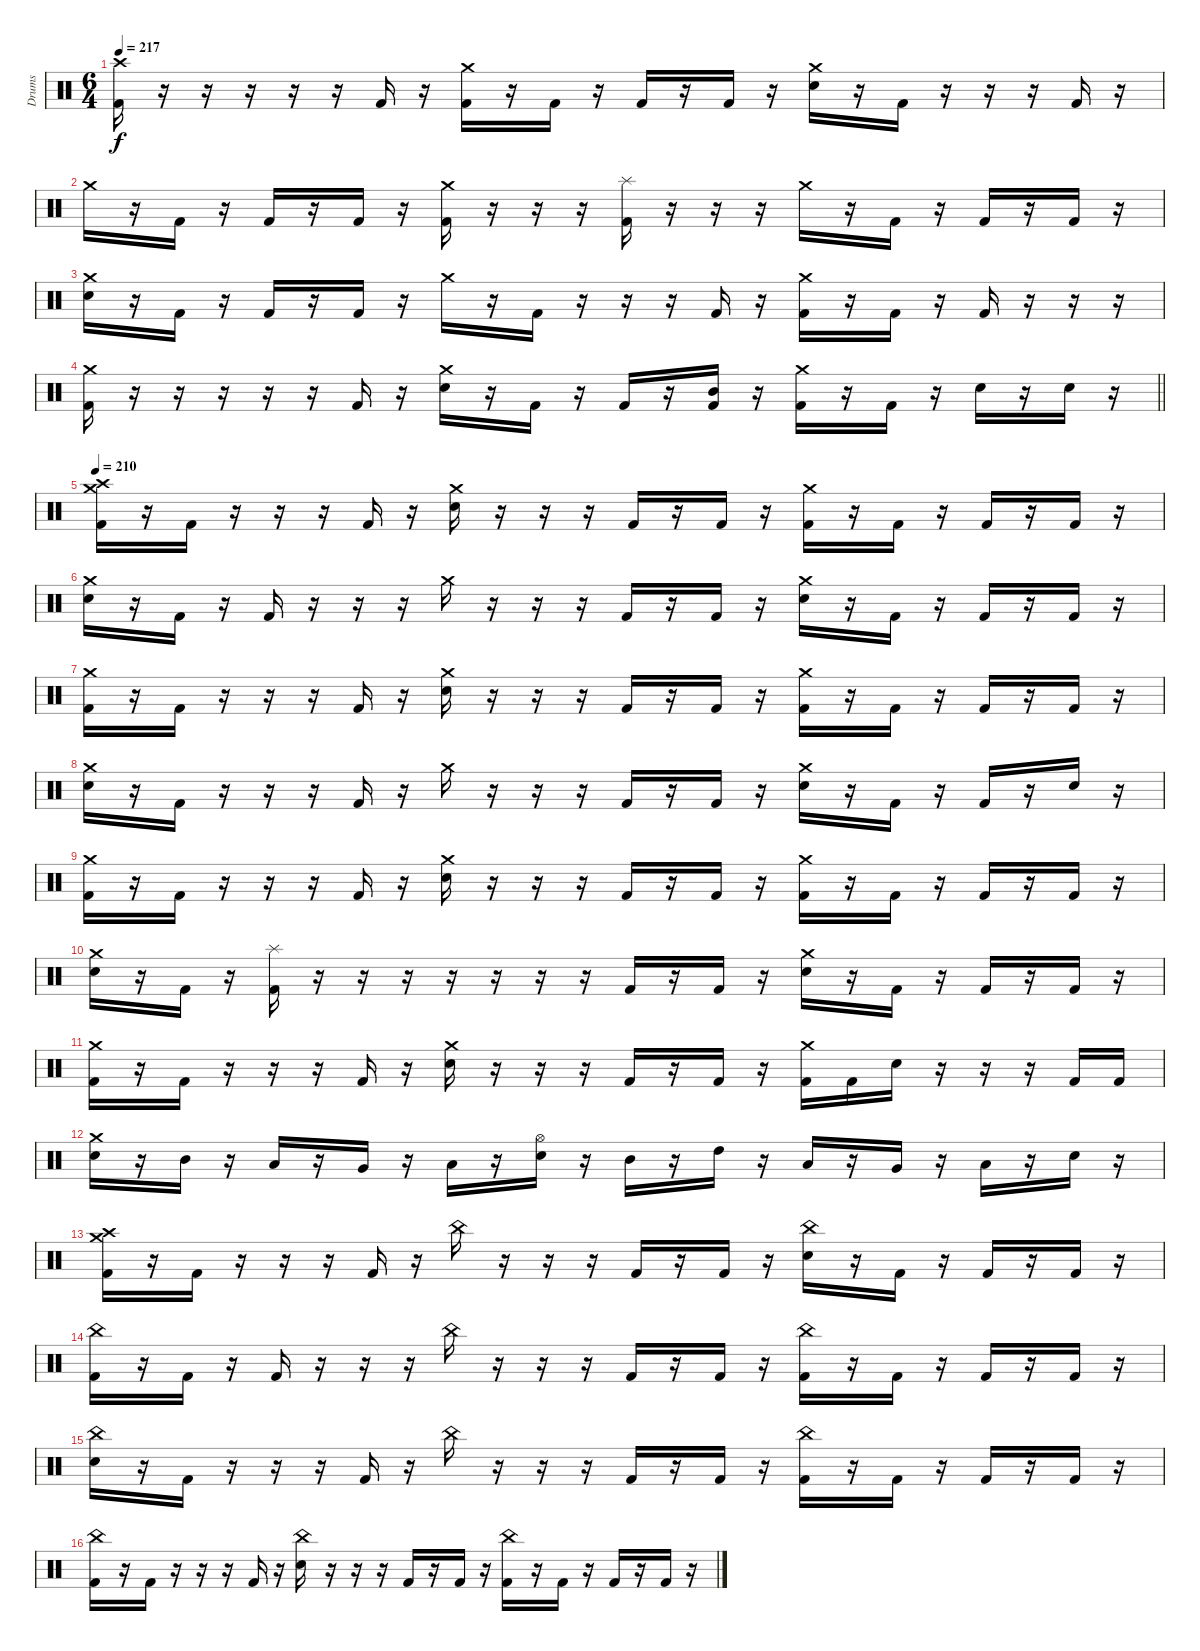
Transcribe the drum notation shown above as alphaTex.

\track ("Drums" "Drums") {instrument percussion}
\staff {score}
\articulation defaults
\ts (6 4)
\tempo 217
\clef neutral
\ks c
("Crash high (hit)" "Kick (hit) 2").16{dy f} r.16 r.16 r.16 r.16 r.16 "Kick (hit) 2".16 r.16 ("Crash medium (hit)" "Kick (hit) 2").16 r.16 "Kick (hit) 2".16 r.16 "Kick (hit) 2".16 r.16 "Kick (hit) 2".16 r.16 ("Crash medium (hit)" "Electric Snare (hit)").16 r.16 "Kick (hit) 2".16 r.16 r.16 r.16 "Kick (hit) 2".16 r.16 |
"Crash medium (hit)".16 r.16 "Kick (hit) 2".16 r.16 "Kick (hit) 2".16 r.16 "Kick (hit) 2".16 r.16 ("Crash medium (hit)" "Kick (hit) 2").16 r.16 r.16 r.16 ("Splash (hit)" "Kick (hit) 2").16 r.16 r.16 r.16 "Crash medium (hit)".16 r.16 "Kick (hit) 2".16 r.16 "Kick (hit) 2".16 r.16 "Kick (hit) 2".16 r.16 |
("Crash medium (hit)" "Electric Snare (hit)").16 r.16 "Kick (hit) 2".16 r.16 "Kick (hit) 2".16 r.16 "Kick (hit) 2".16 r.16 "Crash medium (hit)".16 r.16 "Kick (hit) 2".16 r.16 r.16 r.16 "Kick (hit) 2".16 r.16 ("Crash medium (hit)" "Kick (hit) 2").16 r.16 "Kick (hit) 2".16 r.16 "Kick (hit) 2".16 r.16 r.16 r.16 |
\barLineRight lightlight
("Crash medium (hit)" "Kick (hit) 2").16 r.16 r.16 r.16 r.16 r.16 "Kick (hit) 2".16 r.16 ("Crash medium (hit)" "Electric Snare (hit)").16 r.16 "Kick (hit) 2".16 r.16 "Kick (hit) 2".16 r.16 ("Mid Tom (hit)" "Kick (hit) 2").16 r.16 ("Crash medium (hit)" "Kick (hit) 2").16 r.16 "Kick (hit) 2".16 r.16 "Electric Snare (hit)".16 r.16 "Electric Snare (hit)".16 r.16 |
\section ("" "")
\tempo 210
("Crash medium (hit)" "Crash high (hit)" "Kick (hit) 2").16 r.16 "Kick (hit) 2".16 r.16 r.16 r.16 "Kick (hit) 2".16 r.16 ("Crash medium (hit)" "Electric Snare (hit)").16 r.16 r.16 r.16 "Kick (hit) 2".16 r.16 "Kick (hit) 2".16 r.16 ("Crash medium (hit)" "Kick (hit) 2").16 r.16 "Kick (hit) 2".16 r.16 "Kick (hit) 2".16 r.16 "Kick (hit) 2".16 r.16 |
("Crash medium (hit)" "Electric Snare (hit)").16 r.16 "Kick (hit) 2".16 r.16 "Kick (hit) 2".16 r.16 r.16 r.16 "Crash medium (hit)".16 r.16 r.16 r.16 "Kick (hit) 2".16 r.16 "Kick (hit) 2".16 r.16 ("Crash medium (hit)" "Electric Snare (hit)").16 r.16 "Kick (hit) 2".16 r.16 "Kick (hit) 2".16 r.16 "Kick (hit) 2".16 r.16 |
("Crash medium (hit)" "Kick (hit) 2").16 r.16 "Kick (hit) 2".16 r.16 r.16 r.16 "Kick (hit) 2".16 r.16 ("Crash medium (hit)" "Electric Snare (hit)").16 r.16 r.16 r.16 "Kick (hit) 2".16 r.16 "Kick (hit) 2".16 r.16 ("Crash medium (hit)" "Kick (hit) 2").16 r.16 "Kick (hit) 2".16 r.16 "Kick (hit) 2".16 r.16 "Kick (hit) 2".16 r.16 |
("Crash medium (hit)" "Electric Snare (hit)").16 r.16 "Kick (hit) 2".16 r.16 r.16 r.16 "Kick (hit) 2".16 r.16 "Crash medium (hit)".16 r.16 r.16 r.16 "Kick (hit) 2".16 r.16 "Kick (hit) 2".16 r.16 ("Crash medium (hit)" "Electric Snare (hit)").16 r.16 "Kick (hit) 2".16 r.16 "Kick (hit) 2".16 r.16 "Electric Snare (hit)".16 r.16 |
("Crash medium (hit)" "Kick (hit) 2").16 r.16 "Kick (hit) 2".16 r.16 r.16 r.16 "Kick (hit) 2".16 r.16 ("Crash medium (hit)" "Electric Snare (hit)").16 r.16 r.16 r.16 "Kick (hit) 2".16 r.16 "Kick (hit) 2".16 r.16 ("Crash medium (hit)" "Kick (hit) 2").16 r.16 "Kick (hit) 2".16 r.16 "Kick (hit) 2".16 r.16 "Kick (hit) 2".16 r.16 |
("Crash medium (hit)" "Electric Snare (hit)").16 r.16 "Kick (hit) 2".16 r.16 ("Splash (hit)" "Kick (hit) 2").16 r.16 r.16 r.16 r.16 r.16 r.16 r.16 "Kick (hit) 2".16 r.16 "Kick (hit) 2".16 r.16 ("Crash medium (hit)" "Electric Snare (hit)").16 r.16 "Kick (hit) 2".16 r.16 "Kick (hit) 2".16 r.16 "Kick (hit) 2".16 r.16 |
("Crash medium (hit)" "Kick (hit) 2").16 r.16 "Kick (hit) 2".16 r.16 r.16 r.16 "Kick (hit) 2".16 r.16 ("Crash medium (hit)" "Electric Snare (hit)").16 r.16 r.16 r.16 "Kick (hit) 2".16 r.16 "Kick (hit) 2".16 r.16 ("Crash medium (hit)" "Kick (hit) 2").16 "Kick (hit) 2".16 "Electric Snare (hit)".16 r.16 r.16 r.16 "Kick (hit) 2".16 "Kick (hit) 2".16 |
("Crash medium (hit)" "Electric Snare (hit)").16 r.16 "Mid Tom (hit)".16 r.16 "Low Tom (hit)".16 r.16 "Very Low Tom (hit)".16 r.16 "Low Floor Tom (hit)".16 r.16 ("Hi-Hat (open)" "Electric Snare (hit)").16 r.16 "Mid Tom (hit)".16 r.16 "High Tom (hit)".16 r.16 "Low Tom (hit)".16 r.16 "Very Low Tom (hit)".16 r.16 "Low Floor Tom (hit)".16 r.16 "Electric Snare (hit)".16 r.16 |
("Crash medium (hit)" "Crash high (hit)" "Kick (hit) 2").16 r.16 "Kick (hit) 2".16 r.16 r.16 r.16 "Kick (hit) 2".16 r.16 "China (hit)".16 r.16 r.16 r.16 "Kick (hit) 2".16 r.16 "Kick (hit) 2".16 r.16 ("China (hit)" "Electric Snare (hit)").16 r.16 "Kick (hit) 2".16 r.16 "Kick (hit) 2".16 r.16 "Kick (hit) 2".16 r.16 |
("China (hit)" "Kick (hit) 2").16 r.16 "Kick (hit) 2".16 r.16 "Kick (hit) 2".16 r.16 r.16 r.16 "China (hit)".16 r.16 r.16 r.16 "Kick (hit) 2".16 r.16 "Kick (hit) 2".16 r.16 ("China (hit)" "Kick (hit) 2").16 r.16 "Kick (hit) 2".16 r.16 "Kick (hit) 2".16 r.16 "Kick (hit) 2".16 r.16 |
("China (hit)" "Electric Snare (hit)").16 r.16 "Kick (hit) 2".16 r.16 r.16 r.16 "Kick (hit) 2".16 r.16 "China (hit)".16 r.16 r.16 r.16 "Kick (hit) 2".16 r.16 "Kick (hit) 2".16 r.16 ("China (hit)" "Kick (hit) 2").16 r.16 "Kick (hit) 2".16 r.16 "Kick (hit) 2".16 r.16 "Kick (hit) 2".16 r.16 |
("China (hit)" "Kick (hit) 2").16 r.16 "Kick (hit) 2".16 r.16 r.16 r.16 "Kick (hit) 2".16 r.16 ("China (hit)" "Electric Snare (hit)").16 r.16 r.16 r.16 "Kick (hit) 2".16 r.16 "Kick (hit) 2".16 r.16 ("China (hit)" "Kick (hit) 2").16 r.16 "Kick (hit) 2".16 r.16 "Kick (hit) 2".16 r.16 "Kick (hit) 2".16 r.16
